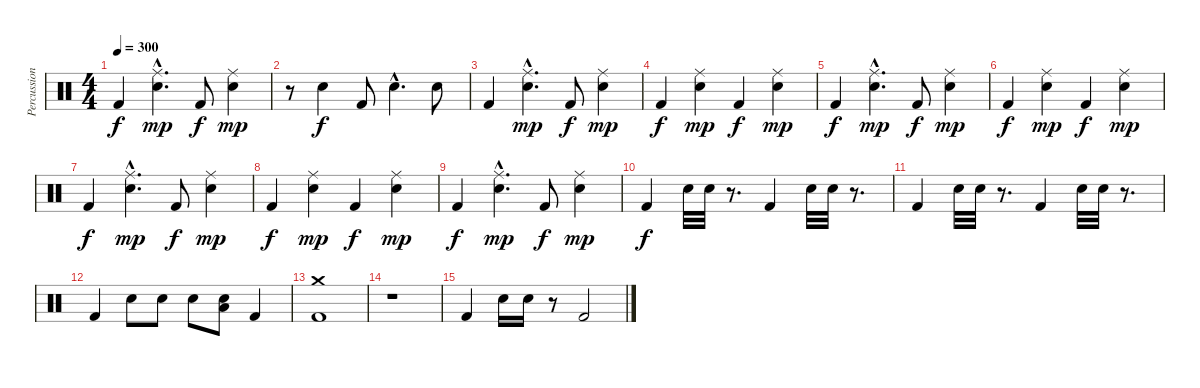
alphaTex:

\track ("Percussions" "Percussion") {instrument percussion}
\staff {score}
\articulation defaults
\ts (4 4)
\tempo 300
\clef neutral
\ks c "Kick (hit) 2".4{dy f}
("Electric Snare (hit)"{hac} "Ride (middle)"{hac}).4{d dy mp} "Kick (hit) 2".8{dy f} ("Electric Snare (hit)" "Ride (middle)").4{dy mp} |
r.8 "Electric Snare (hit)".4{dy f} "Kick (hit) 2".8 "Electric Snare (hit)"{hac}.4{d} "Electric Snare (hit)".8 |
"Kick (hit) 2".4 ("Electric Snare (hit)"{hac} "Ride (middle)"{hac}).4{d dy mp} "Kick (hit) 2".8{dy f} ("Electric Snare (hit)" "Ride (middle)").4{dy mp} |
"Kick (hit) 2".4{dy f} ("Electric Snare (hit)" "Ride (middle)").4{dy mp} "Kick (hit) 2".4{dy f} ("Electric Snare (hit)" "Ride (middle)").4{dy mp} |
"Kick (hit) 2".4{dy f} ("Electric Snare (hit)"{hac} "Ride (middle)"{hac}).4{d dy mp} "Kick (hit) 2".8{dy f} ("Electric Snare (hit)" "Ride (middle)").4{dy mp} |
"Kick (hit) 2".4{dy f} ("Electric Snare (hit)" "Ride (middle)").4{dy mp} "Kick (hit) 2".4{dy f} ("Electric Snare (hit)" "Ride (middle)").4{dy mp} |
"Kick (hit) 2".4{dy f} ("Electric Snare (hit)"{hac} "Ride (middle)"{hac}).4{d dy mp} "Kick (hit) 2".8{dy f} ("Electric Snare (hit)" "Ride (middle)").4{dy mp} |
"Kick (hit) 2".4{dy f} ("Electric Snare (hit)" "Ride (middle)").4{dy mp} "Kick (hit) 2".4{dy f} ("Electric Snare (hit)" "Ride (middle)").4{dy mp} |
"Kick (hit) 2".4{dy f} ("Electric Snare (hit)"{hac} "Ride (middle)"{hac}).4{d dy mp} "Kick (hit) 2".8{dy f} ("Electric Snare (hit)" "Ride (middle)").4{dy mp} |
"Kick (hit) 2".4{dy f} "Electric Snare (hit)".32 "Electric Snare (hit)".32 r.8{d} "Kick (hit) 2".4 "Electric Snare (hit)".32 "Electric Snare (hit)".32 r.8{d} |
"Kick (hit) 2".4 "Electric Snare (hit)".32 "Electric Snare (hit)".32 r.8{d} "Kick (hit) 2".4 "Electric Snare (hit)".32 "Electric Snare (hit)".32 r.8{d} |
"Kick (hit) 2".4 "Electric Snare (hit)".8 "Electric Snare (hit)".8 "Electric Snare (hit)".8 ("Low Floor Tom (hit)" "Electric Snare (hit)").8 "Kick (hit) 2".4 |
("Kick (hit) 2" "Crash medium (hit)").1 |
r.1 |
"Kick (hit) 2".4 "Electric Snare (hit)".16 "Electric Snare (hit)".16 r.8 "Kick (hit) 2".2
